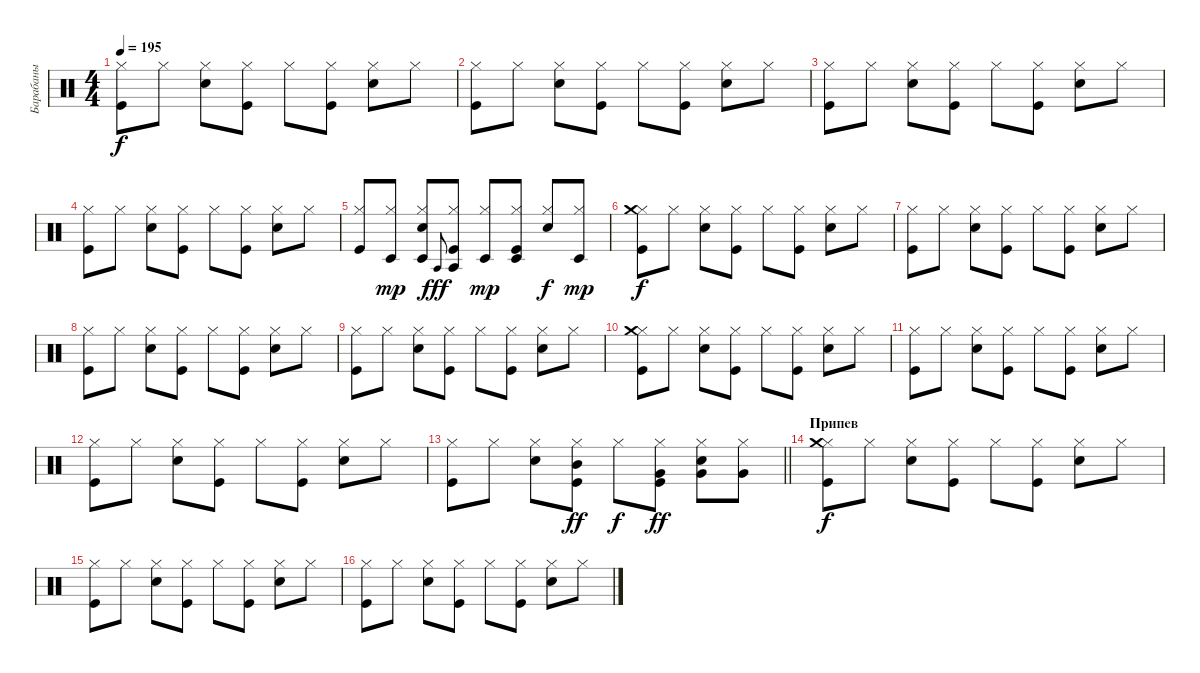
\track ("Барабаны" "Барабаны") {instrument percussion}
\staff {score}
\articulation defaults
\ts (4 4)
\tempo 195
\clef neutral
\ks c
("Kick (hit)" "Hi-Hat (closed)").8{dy f} "Hi-Hat (closed)".8 ("Snare (hit) 2" "Hi-Hat (closed)").8 ("Kick (hit)" "Hi-Hat (closed)").8 "Hi-Hat (closed)".8 ("Kick (hit)" "Hi-Hat (closed)").8 ("Snare (hit) 2" "Hi-Hat (closed)").8 "Hi-Hat (closed)".8 |
("Kick (hit)" "Hi-Hat (closed)").8 "Hi-Hat (closed)".8 ("Snare (hit) 2" "Hi-Hat (closed)").8 ("Kick (hit)" "Hi-Hat (closed)").8 "Hi-Hat (closed)".8 ("Kick (hit)" "Hi-Hat (closed)").8 ("Snare (hit) 2" "Hi-Hat (closed)").8 "Hi-Hat (closed)".8 |
("Kick (hit)" "Hi-Hat (closed)").8 "Hi-Hat (closed)".8 ("Snare (hit) 2" "Hi-Hat (closed)").8 ("Kick (hit)" "Hi-Hat (closed)").8 "Hi-Hat (closed)".8 ("Kick (hit)" "Hi-Hat (closed)").8 ("Snare (hit) 2" "Hi-Hat (closed)").8 "Hi-Hat (closed)".8 |
("Kick (hit)" "Hi-Hat (closed)").8 "Hi-Hat (closed)".8 ("Snare (hit) 2" "Hi-Hat (closed)").8 ("Kick (hit)" "Hi-Hat (closed)").8 "Hi-Hat (closed)".8 ("Kick (hit)" "Hi-Hat (closed)").8 ("Snare (hit) 2" "Hi-Hat (closed)").8 "Hi-Hat (closed)".8 |
("Kick (hit)" "Hi-Hat (closed)").8 ("Hi-Hat (closed)" "Timbale low (hit)").8{dy mp} ("Snare (hit) 2" "Hi-Hat (closed)" "Timbale low (hit)").8 "Agogo tow (hit)".8{gr onbeat dy fff} ("Kick (hit)" "Hi-Hat (closed)" "Agogo tow (hit)").8 ("Hi-Hat (closed)" "Timbale low (hit)").8{dy mp} ("Kick (hit)" "Hi-Hat (closed)" "Timbale low (hit)").8 ("Snare (hit) 2" "Hi-Hat (closed)").8{dy f} ("Hi-Hat (closed)" "Timbale low (hit)").8{dy mp} |
("Kick (hit)" "Hi-Hat (closed)" "Crash medium (hit)").8{dy f} "Hi-Hat (closed)".8 ("Snare (hit) 2" "Hi-Hat (closed)").8 ("Kick (hit)" "Hi-Hat (closed)").8 "Hi-Hat (closed)".8 ("Kick (hit)" "Hi-Hat (closed)").8 ("Snare (hit) 2" "Hi-Hat (closed)").8 "Hi-Hat (closed)".8 |
("Kick (hit)" "Hi-Hat (closed)").8 "Hi-Hat (closed)".8 ("Snare (hit) 2" "Hi-Hat (closed)").8 ("Kick (hit)" "Hi-Hat (closed)").8 "Hi-Hat (closed)".8 ("Kick (hit)" "Hi-Hat (closed)").8 ("Snare (hit) 2" "Hi-Hat (closed)").8 "Hi-Hat (closed)".8 |
("Kick (hit)" "Hi-Hat (closed)").8 "Hi-Hat (closed)".8 ("Snare (hit) 2" "Hi-Hat (closed)").8 ("Kick (hit)" "Hi-Hat (closed)").8 "Hi-Hat (closed)".8 ("Kick (hit)" "Hi-Hat (closed)").8 ("Snare (hit) 2" "Hi-Hat (closed)").8 "Hi-Hat (closed)".8 |
("Kick (hit)" "Hi-Hat (closed)").8 "Hi-Hat (closed)".8 ("Snare (hit) 2" "Hi-Hat (closed)").8 ("Kick (hit)" "Hi-Hat (closed)").8 "Hi-Hat (closed)".8 ("Kick (hit)" "Hi-Hat (closed)").8 ("Snare (hit) 2" "Hi-Hat (closed)").8 "Hi-Hat (closed)".8 |
("Kick (hit)" "Hi-Hat (closed)" "Crash medium (hit)").8 "Hi-Hat (closed)".8 ("Snare (hit) 2" "Hi-Hat (closed)").8 ("Kick (hit)" "Hi-Hat (closed)").8 "Hi-Hat (closed)".8 ("Kick (hit)" "Hi-Hat (closed)").8 ("Snare (hit) 2" "Hi-Hat (closed)").8 "Hi-Hat (closed)".8 |
("Kick (hit)" "Hi-Hat (closed)").8 "Hi-Hat (closed)".8 ("Snare (hit) 2" "Hi-Hat (closed)").8 ("Kick (hit)" "Hi-Hat (closed)").8 "Hi-Hat (closed)".8 ("Kick (hit)" "Hi-Hat (closed)").8 ("Snare (hit) 2" "Hi-Hat (closed)").8 "Hi-Hat (closed)".8 |
("Kick (hit)" "Hi-Hat (closed)").8 "Hi-Hat (closed)".8 ("Snare (hit) 2" "Hi-Hat (closed)").8 ("Kick (hit)" "Hi-Hat (closed)").8 "Hi-Hat (closed)".8 ("Kick (hit)" "Hi-Hat (closed)").8 ("Snare (hit) 2" "Hi-Hat (closed)").8 "Hi-Hat (closed)".8 |
\barLineRight lightlight
("Kick (hit)" "Hi-Hat (closed)").8 "Hi-Hat (closed)".8 ("Snare (hit) 2" "Hi-Hat (closed)").8 ("Kick (hit)" "Hi-Hat (closed)" "Mid Tom (hit)").8{dy ff} "Hi-Hat (closed)".8{dy f} ("Kick (hit)" "Hi-Hat (closed)" "Very Low Tom (hit)").8{dy ff} ("Snare (hit) 2" "Hi-Hat (closed)" "Very Low Tom (hit)").8 ("Hi-Hat (closed)" "Very Low Tom (hit)").8 |
\section ("" "Припев")
("Kick (hit)" "Hi-Hat (closed)" "Crash medium (hit)").8{dy f} "Hi-Hat (closed)".8 ("Snare (hit) 2" "Hi-Hat (closed)").8 ("Kick (hit)" "Hi-Hat (closed)").8 "Hi-Hat (closed)".8 ("Kick (hit)" "Hi-Hat (closed)").8 ("Snare (hit) 2" "Hi-Hat (closed)").8 "Hi-Hat (closed)".8 |
("Kick (hit)" "Hi-Hat (closed)").8 "Hi-Hat (closed)".8 ("Snare (hit) 2" "Hi-Hat (closed)").8 ("Kick (hit)" "Hi-Hat (closed)").8 "Hi-Hat (closed)".8 ("Kick (hit)" "Hi-Hat (closed)").8 ("Snare (hit) 2" "Hi-Hat (closed)").8 "Hi-Hat (closed)".8 |
("Kick (hit)" "Hi-Hat (closed)").8 "Hi-Hat (closed)".8 ("Snare (hit) 2" "Hi-Hat (closed)").8 ("Kick (hit)" "Hi-Hat (closed)").8 "Hi-Hat (closed)".8 ("Kick (hit)" "Hi-Hat (closed)").8 ("Snare (hit) 2" "Hi-Hat (closed)").8 "Hi-Hat (closed)".8
